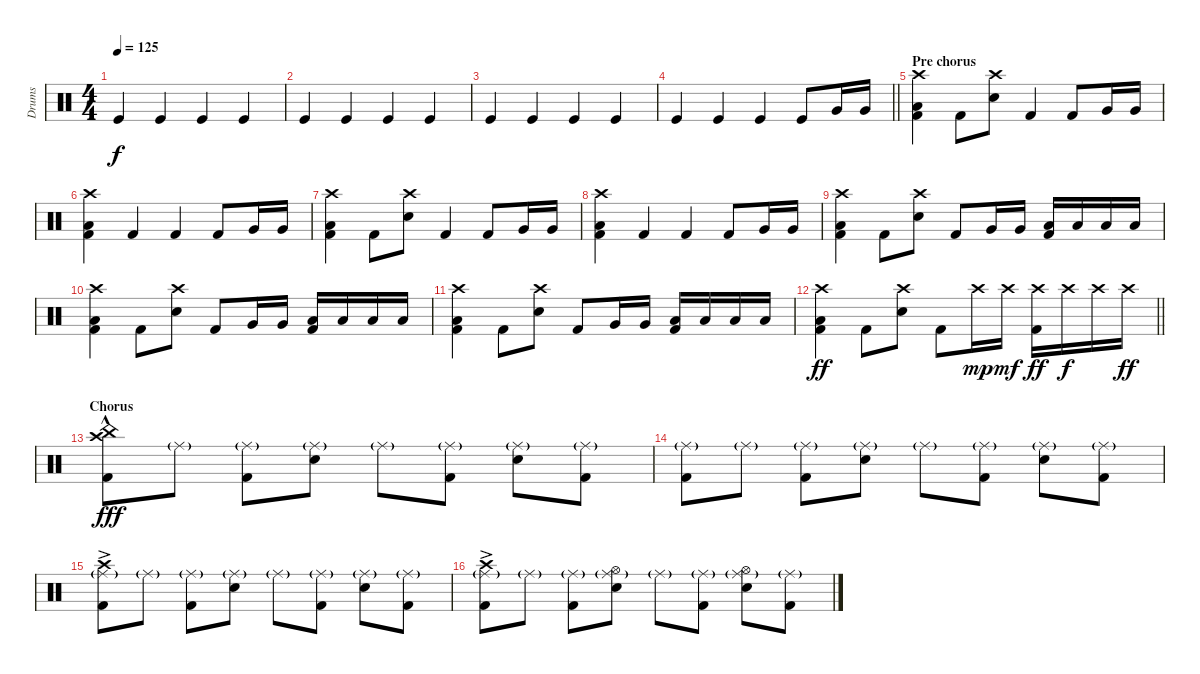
\track ("Drums" "Drums") {instrument percussion}
\staff
\articulation defaults
\ts (4 4)
\tempo 125
\clef neutral
\ks c "Kick (hit)".4{dy f} "Kick (hit)".4 "Kick (hit)".4 "Kick (hit)".4
|
"Kick (hit)".4 "Kick (hit)".4 "Kick (hit)".4 "Kick (hit)".4 |
"Kick (hit)".4 "Kick (hit)".4 "Kick (hit)".4 "Kick (hit)".4 |
\barLineRight lightlight "Kick (hit)".4 "Kick (hit)".4 "Kick (hit)".4 "Kick (hit)".8 "Very Low Tom (hit)".16 "Very Low Tom (hit)".16
|
\section ("" "Pre chorus")
("Low Tom (hit)" "Kick (hit) 2" "Crash high (hit)").4 "Kick (hit) 2".8 ("Crash high (hit)" "Snare (hit) 2").8 "Kick (hit) 2".4 "Kick (hit) 2".8 "Very Low Tom (hit)".16 "Very Low Tom (hit)".16 |
("Low Tom (hit)" "Kick (hit) 2" "Crash high (hit)").4 "Kick (hit) 2".4 "Kick (hit) 2".4 "Kick (hit) 2".8 "Very Low Tom (hit)".16 "Very Low Tom (hit)".16 |
("Low Tom (hit)" "Kick (hit) 2" "Crash high (hit)").4 "Kick (hit) 2".8 ("Crash high (hit)" "Snare (hit) 2").8 "Kick (hit) 2".4 "Kick (hit) 2".8 "Very Low Tom (hit)".16 "Very Low Tom (hit)".16 |
("Low Tom (hit)" "Kick (hit) 2" "Crash high (hit)").4 "Kick (hit) 2".4 "Kick (hit) 2".4 "Kick (hit) 2".8 "Very Low Tom (hit)".16 "Very Low Tom (hit)".16 |
("Low Tom (hit)" "Kick (hit) 2" "Crash high (hit)").4 "Kick (hit) 2".8 ("Crash high (hit)" "Snare (hit) 2").8 "Kick (hit) 2".8 "Very Low Tom (hit)".16 "Very Low Tom (hit)".16 ("Low Tom (hit)" "Kick (hit) 2").16 "Low Tom (hit)".16 "Low Floor Tom (hit)".16 "Low Floor Tom (hit)".16 |
("Low Tom (hit)" "Kick (hit) 2" "Crash high (hit)").4 "Kick (hit) 2".8 ("Crash high (hit)" "Snare (hit) 2").8 "Kick (hit) 2".8 "Very Low Tom (hit)".16 "Very Low Tom (hit)".16 ("Low Tom (hit)" "Kick (hit) 2").16 "Low Tom (hit)".16 "Low Floor Tom (hit)".16 "Low Floor Tom (hit)".16 |
("Low Tom (hit)" "Kick (hit) 2" "Crash high (hit)").4 "Kick (hit) 2".8 ("Crash high (hit)" "Snare (hit) 2").8 "Kick (hit) 2".8 "Very Low Tom (hit)".16 "Very Low Tom (hit)".16 ("Low Tom (hit)" "Kick (hit) 2").16 "Low Tom (hit)".16 "Low Floor Tom (hit)".16 "Low Floor Tom (hit)".16 |
\barLineRight lightlight
("Low Tom (hit)" "Kick (hit) 2" "Crash high (hit)").4{dy ff} "Kick (hit) 2".8 ("Crash high (hit)" "Snare (hit) 2").8 "Kick (hit) 2".8 "Crash high (hit)".16{dy mp} "Crash high (hit)".16{dy mf} ("Crash high (hit)" "Kick (hit) 2").16{dy ff} "Crash high (hit)".16{dy f} "Crash high (hit)".16 "Crash high (hit)".16{dy ff} |
\section ("" "Chorus")
("Crash high (hit)" "Kick (hit) 2"{hac} "China (hit)"{hac}).8{dy fff} "Ride (middle)"{g}.8 ("Kick (hit) 2" "Ride (middle)"{g}).8 ("Snare (hit) 2" "Ride (middle)"{g}).8 "Ride (middle)"{g}.8 ("Kick (hit) 2" "Ride (middle)"{g}).8 ("Snare (hit) 2" "Ride (middle)"{g}).8 ("Kick (hit) 2" "Ride (middle)"{g}).8 |
("Kick (hit) 2" "Ride (middle)"{g}).8 "Ride (middle)"{g}.8 ("Kick (hit) 2" "Ride (middle)"{g}).8 ("Snare (hit) 2" "Ride (middle)"{g}).8 "Ride (middle)"{g}.8 ("Kick (hit) 2" "Ride (middle)"{g}).8 ("Snare (hit) 2" "Ride (middle)"{g}).8 ("Kick (hit) 2" "Ride (middle)"{g}).8 |
("Crash high (hit)"{ac} "Kick (hit) 2" "Ride (middle)"{g}).8 "Ride (middle)"{g}.8 ("Kick (hit) 2" "Ride (middle)"{g}).8 ("Snare (hit) 2" "Ride (middle)"{g}).8 "Ride (middle)"{g}.8 ("Kick (hit) 2" "Ride (middle)"{g}).8 ("Snare (hit) 2" "Ride (middle)"{g}).8 ("Kick (hit) 2" "Ride (middle)"{g}).8 |
("Crash high (hit)"{ac} "Kick (hit) 2" "Ride (middle)"{g}).8 "Ride (middle)"{g}.8 ("Kick (hit) 2" "Ride (middle)"{g}).8 ("Snare (hit) 2" "Hi-Hat (open)" "Ride (middle)"{g}).8 "Ride (middle)"{g}.8 ("Kick (hit) 2" "Ride (middle)"{g}).8 ("Snare (hit) 2" "Hi-Hat (open)" "Ride (middle)"{g}).8 ("Kick (hit) 2" "Ride (middle)"{g}).8
